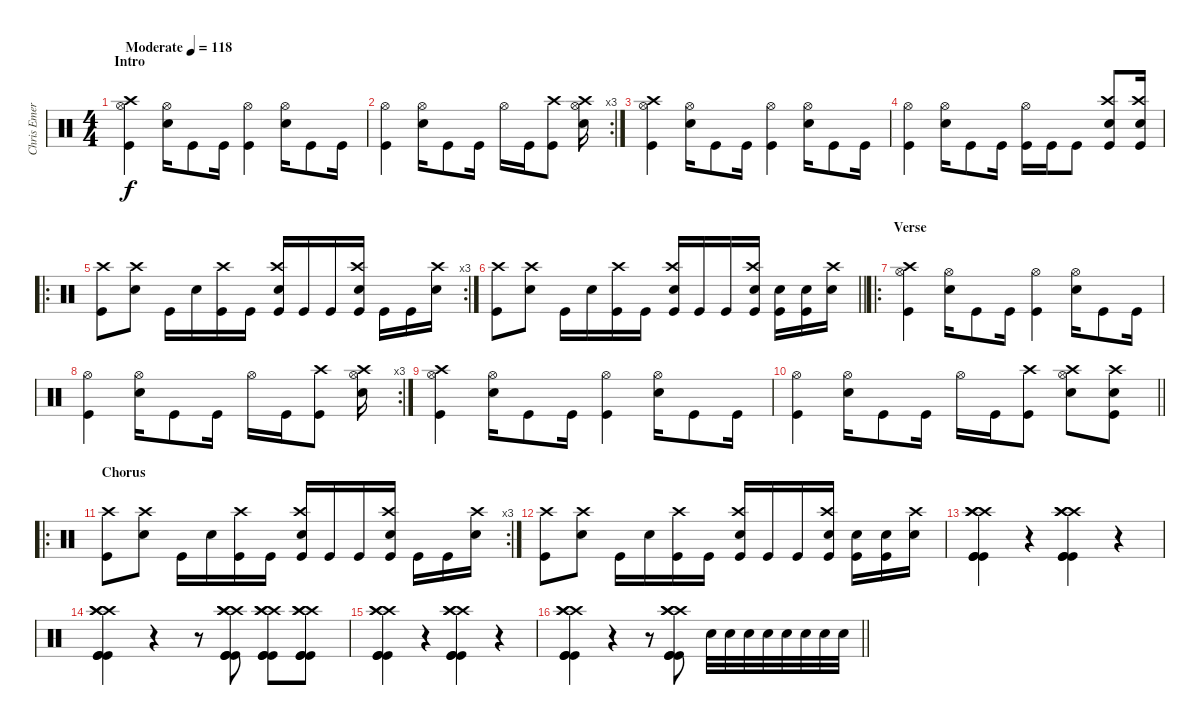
\track ("Chris Emery" "Chris Emer") {instrument percussion}
\staff {score}
\articulation defaults
\ts (4 4)
\section ("" "Intro")
\tempo (118 "Moderate")
\clef neutral
\ks c
("Hi-Hat (open)" "Kick (hit)" "Crash high (hit)").4{dy f} ("Snare (hit) 2" "Hi-Hat (open)").16 "Kick (hit)".8 "Kick (hit)".16 ("Hi-Hat (open)" "Kick (hit)").4 ("Snare (hit) 2" "Hi-Hat (open)").16 "Kick (hit)".8 "Kick (hit)".16 |
\rc 3
("Hi-Hat (open)" "Kick (hit)").4 ("Snare (hit) 2" "Hi-Hat (open)").16 "Kick (hit)".8 "Kick (hit)".16 "Hi-Hat (open)".16 "Kick (hit)".16 ("Kick (hit)" "Crash high (hit)").8 ("Snare (hit) 2" "Hi-Hat (open)" "Crash high (hit)").16 |
("Hi-Hat (open)" "Kick (hit)" "Crash high (hit)").4 ("Snare (hit) 2" "Hi-Hat (open)").16 "Kick (hit)".8 "Kick (hit)".16 ("Hi-Hat (open)" "Kick (hit)").4 ("Snare (hit) 2" "Hi-Hat (open)").16 "Kick (hit)".8 "Kick (hit)".16 |
("Hi-Hat (open)" "Kick (hit)").4 ("Snare (hit) 2" "Hi-Hat (open)").16 "Kick (hit)".8 "Kick (hit)".16 ("Hi-Hat (open)" "Kick (hit)").16 "Kick (hit)".16 "Kick (hit)".8 ("Kick (hit)" "Crash high (hit)" "Snare (hit) 2").8 ("Snare (hit) 2" "Kick (hit)" "Crash high (hit)").16 |
\ro
\rc 3
("Crash high (hit)" "Kick (hit)").8 ("Snare (hit) 2" "Crash high (hit)").8 "Kick (hit)".16 "Snare (hit) 2".16 ("Kick (hit)" "Crash high (hit)").16 "Kick (hit)".16 ("Kick (hit)" "Snare (hit) 2" "Crash high (hit)").16 "Kick (hit)".16 "Kick (hit)".16 ("Kick (hit)" "Snare (hit) 2" "Crash high (hit)").16 "Kick (hit)".16 "Kick (hit)".16 ("Snare (hit) 2" "Crash high (hit)").16 |
\barLineRight lightlight
("Crash high (hit)" "Kick (hit)").8 ("Snare (hit) 2" "Crash high (hit)").8 "Kick (hit)".16 "Snare (hit) 2".16 ("Kick (hit)" "Crash high (hit)").16 "Kick (hit)".16 ("Kick (hit)" "Snare (hit) 2" "Crash high (hit)").16 "Kick (hit)".16 "Kick (hit)".16 ("Kick (hit)" "Snare (hit) 2" "Crash high (hit)").16 ("Kick (hit)" "Snare (hit) 2").16 ("Kick (hit)" "Snare (hit) 2").16 ("Snare (hit) 2" "Crash high (hit)").16 |
\ro
\section ("" "Verse")
("Hi-Hat (open)" "Kick (hit)" "Crash high (hit)").4 ("Snare (hit) 2" "Hi-Hat (open)").16 "Kick (hit)".8 "Kick (hit)".16 ("Hi-Hat (open)" "Kick (hit)").4 ("Snare (hit) 2" "Hi-Hat (open)").16 "Kick (hit)".8 "Kick (hit)".16 |
\rc 3
("Hi-Hat (open)" "Kick (hit)").4 ("Snare (hit) 2" "Hi-Hat (open)").16 "Kick (hit)".8 "Kick (hit)".16 "Hi-Hat (open)".16 "Kick (hit)".16 ("Kick (hit)" "Crash high (hit)").8 ("Snare (hit) 2" "Hi-Hat (open)" "Crash high (hit)").16 |
("Hi-Hat (open)" "Kick (hit)" "Crash high (hit)").4 ("Snare (hit) 2" "Hi-Hat (open)").16 "Kick (hit)".8 "Kick (hit)".16 ("Hi-Hat (open)" "Kick (hit)").4 ("Snare (hit) 2" "Hi-Hat (open)").16 "Kick (hit)".8 "Kick (hit)".16 |
\barLineRight lightlight
("Hi-Hat (open)" "Kick (hit)").4 ("Snare (hit) 2" "Hi-Hat (open)").16 "Kick (hit)".8 "Kick (hit)".16 "Hi-Hat (open)".16 "Kick (hit)".16 ("Kick (hit)" "Crash high (hit)").8 ("Hi-Hat (open)" "Crash high (hit)" "Snare (hit) 2").8 ("Crash high (hit)" "Snare (hit) 2" "Kick (hit)").8 |
\ro
\rc 3
\section ("" "Chorus")
("Crash high (hit)" "Kick (hit)").8 ("Snare (hit) 2" "Crash high (hit)").8 "Kick (hit)".16 "Snare (hit) 2".16 ("Kick (hit)" "Crash high (hit)").16 "Kick (hit)".16 ("Kick (hit)" "Snare (hit) 2" "Crash high (hit)").16 "Kick (hit)".16 "Kick (hit)".16 ("Kick (hit)" "Snare (hit) 2" "Crash high (hit)").16 "Kick (hit)".16 "Kick (hit)".16 ("Snare (hit) 2" "Crash high (hit)").16 |
("Crash high (hit)" "Kick (hit)").8 ("Snare (hit) 2" "Crash high (hit)").8 "Kick (hit)".16 "Snare (hit) 2".16 ("Kick (hit)" "Crash high (hit)").16 "Kick (hit)".16 ("Kick (hit)" "Snare (hit) 2" "Crash high (hit)").16 "Kick (hit)".16 "Kick (hit)".16 ("Kick (hit)" "Snare (hit) 2" "Crash high (hit)").16 ("Kick (hit)" "Snare (hit) 2").16 ("Kick (hit)" "Snare (hit) 2").16 ("Snare (hit) 2" "Crash high (hit)").16 |
("Kick (hit)" "Kick (hit)" "Kick (hit)" "Crash high (hit)" "Crash high (hit)" "Crash high (hit)").4 r.4 ("Kick (hit)" "Kick (hit)" "Kick (hit)" "Crash high (hit)" "Crash high (hit)" "Crash high (hit)").4 r.4 |
("Kick (hit)" "Kick (hit)" "Kick (hit)" "Crash high (hit)" "Crash high (hit)" "Crash high (hit)").4 r.4 r.8 ("Kick (hit)" "Kick (hit)" "Kick (hit)" "Crash high (hit)" "Crash high (hit)" "Crash high (hit)").8 ("Kick (hit)" "Kick (hit)" "Kick (hit)" "Crash high (hit)" "Crash high (hit)" "Crash high (hit)").8 ("Kick (hit)" "Kick (hit)" "Kick (hit)" "Crash high (hit)" "Crash high (hit)" "Crash high (hit)").8 |
("Kick (hit)" "Kick (hit)" "Kick (hit)" "Crash high (hit)" "Crash high (hit)" "Crash high (hit)").4 r.4 ("Kick (hit)" "Kick (hit)" "Kick (hit)" "Crash high (hit)" "Crash high (hit)" "Crash high (hit)").4 r.4 |
\barLineRight lightlight
("Kick (hit)" "Kick (hit)" "Kick (hit)" "Crash high (hit)" "Crash high (hit)" "Crash high (hit)").4 r.4 r.8 ("Kick (hit)" "Kick (hit)" "Kick (hit)" "Crash high (hit)" "Crash high (hit)" "Crash high (hit)").8 "Snare (hit) 2".32 "Snare (hit) 2".32 "Snare (hit) 2".32 "Snare (hit) 2".32 "Snare (hit) 2".32 "Snare (hit) 2".32 "Snare (hit) 2".32 "Snare (hit) 2".32
